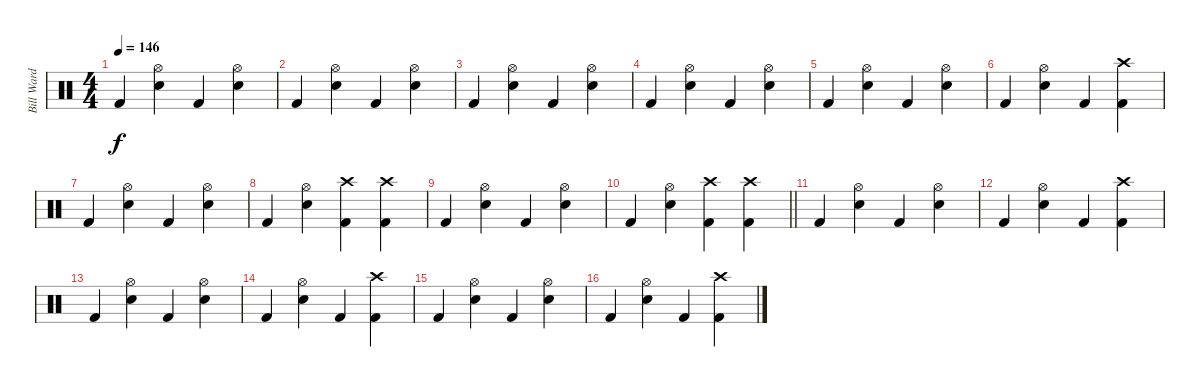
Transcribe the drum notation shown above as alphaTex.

\track ("Bill Ward" "Bill Ward") {instrument percussion}
\staff {score}
\articulation defaults
\ts (4 4)
\tempo 146
\clef neutral
\ks c "Kick (hit) 2".4{dy f}
("Hi-Hat (open)" "Snare (hit) 2").4 "Kick (hit) 2".4 ("Hi-Hat (open)" "Snare (hit) 2").4 |
"Kick (hit) 2".4 ("Hi-Hat (open)" "Snare (hit) 2").4 "Kick (hit) 2".4 ("Hi-Hat (open)" "Snare (hit) 2").4 |
"Kick (hit) 2".4 ("Hi-Hat (open)" "Snare (hit) 2").4 "Kick (hit) 2".4 ("Hi-Hat (open)" "Snare (hit) 2").4 |
"Kick (hit) 2".4 ("Hi-Hat (open)" "Snare (hit) 2").4 "Kick (hit) 2".4 ("Hi-Hat (open)" "Snare (hit) 2").4 |
"Kick (hit) 2".4 ("Hi-Hat (open)" "Snare (hit) 2").4 "Kick (hit) 2".4 ("Hi-Hat (open)" "Snare (hit) 2").4 |
"Kick (hit) 2".4 ("Hi-Hat (open)" "Snare (hit) 2").4 "Kick (hit) 2".4 ("Crash high (hit)" "Kick (hit) 2").4 |
"Kick (hit) 2".4 ("Hi-Hat (open)" "Snare (hit) 2").4 "Kick (hit) 2".4 ("Hi-Hat (open)" "Snare (hit) 2").4 |
"Kick (hit) 2".4 ("Hi-Hat (open)" "Snare (hit) 2").4 ("Crash high (hit)" "Kick (hit) 2").4 ("Crash high (hit)" "Kick (hit) 2").4 |
"Kick (hit) 2".4 ("Hi-Hat (open)" "Snare (hit) 2").4 "Kick (hit) 2".4 ("Hi-Hat (open)" "Snare (hit) 2").4 |
\barLineRight lightlight "Kick (hit) 2".4
("Hi-Hat (open)" "Snare (hit) 2").4 ("Crash high (hit)" "Kick (hit) 2").4 ("Crash high (hit)" "Kick (hit) 2").4 |
"Kick (hit) 2".4 ("Hi-Hat (open)" "Snare (hit) 2").4 "Kick (hit) 2".4 ("Hi-Hat (open)" "Snare (hit) 2").4 |
"Kick (hit) 2".4 ("Hi-Hat (open)" "Snare (hit) 2").4 "Kick (hit) 2".4 ("Crash high (hit)" "Kick (hit) 2").4 |
"Kick (hit) 2".4 ("Hi-Hat (open)" "Snare (hit) 2").4 "Kick (hit) 2".4 ("Hi-Hat (open)" "Snare (hit) 2").4 |
"Kick (hit) 2".4 ("Hi-Hat (open)" "Snare (hit) 2").4 "Kick (hit) 2".4 ("Crash high (hit)" "Kick (hit) 2").4 |
"Kick (hit) 2".4 ("Hi-Hat (open)" "Snare (hit) 2").4 "Kick (hit) 2".4 ("Hi-Hat (open)" "Snare (hit) 2").4 |
"Kick (hit) 2".4 ("Hi-Hat (open)" "Snare (hit) 2").4 "Kick (hit) 2".4 ("Crash high (hit)" "Kick (hit) 2").4
